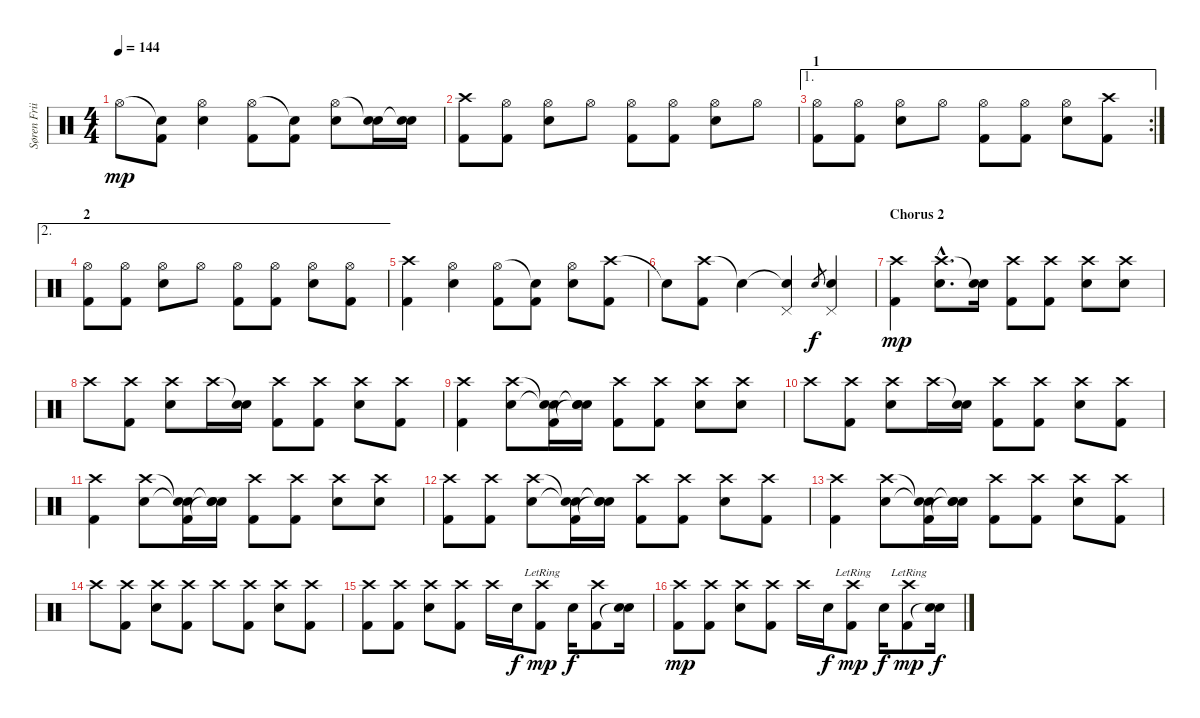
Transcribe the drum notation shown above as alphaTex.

\track ("Søren Friis" "Søren Frii") {instrument percussion}
\staff {score}
\articulation defaults
\ts (4 4)
\tempo 144
\clef neutral
\ks c "Hi-Hat (open)".8{dy mp}
("Snare (hit)"{t} "Kick (hit) 2").8 ("Hi-Hat (open)" "Snare (hit) 2").4 ("Hi-Hat (open)" "Kick (hit) 2").8 ("Snare (hit)"{t} "Kick (hit) 2").8 ("Hi-Hat (open)" "Snare (hit) 2").8 ("Snare (hit)"{t} "Snare (hit) 2").16 ("Snare (hit)"{t} "Snare (hit) 2").16 |
("Crash high (hit)" "Kick (hit) 2").8 ("Hi-Hat (open)" "Kick (hit) 2").8 ("Hi-Hat (open)" "Snare (hit) 2").8 "Hi-Hat (open)".8 ("Hi-Hat (open)" "Kick (hit) 2").8 ("Hi-Hat (open)" "Kick (hit) 2").8 ("Hi-Hat (open)" "Snare (hit) 2").8 "Hi-Hat (open)".8 |
\ae 1
\rc 2
\section ("" "1")
("Hi-Hat (open)" "Kick (hit) 2").8 ("Hi-Hat (open)" "Kick (hit) 2").8 ("Hi-Hat (open)" "Snare (hit) 2").8 "Hi-Hat (open)".8 ("Hi-Hat (open)" "Kick (hit) 2").8 ("Hi-Hat (open)" "Kick (hit) 2").8 ("Hi-Hat (open)" "Snare (hit) 2").8 ("Crash high (hit)" "Kick (hit) 2").8 |
\ae 2
\section ("" "2")
("Hi-Hat (open)" "Kick (hit) 2").8 ("Hi-Hat (open)" "Kick (hit) 2").8 ("Hi-Hat (open)" "Snare (hit) 2").8 "Hi-Hat (open)".8 ("Hi-Hat (open)" "Kick (hit) 2").8 ("Hi-Hat (open)" "Kick (hit) 2").8 ("Hi-Hat (open)" "Snare (hit) 2").8 ("Hi-Hat (open)" "Kick (hit) 2").8 |
("Crash high (hit)" "Kick (hit) 2").4 ("Hi-Hat (open)" "Snare (hit) 2").4 ("Hi-Hat (open)" "Kick (hit) 2").8 ("Snare (hit)"{t} "Kick (hit) 2").8 ("Hi-Hat (open)" "Snare (hit) 2").8 ("Crash high (hit)" "Kick (hit) 2").8 |
"Snare (hit)"{t}.8 ("Crash high (hit)" "Kick (hit) 2").8 "Snare (hit)"{t}.4 ("Snare (hit)"{t} "Pedal Hi-Hat (hit)").4 "Snare (hit) 2".8{gr dy f} ("Snare (hit) 2" "Pedal Hi-Hat (hit)").4 |
\section ("" "Chorus 2")
("Crash high (hit)" "Kick (hit) 2").4{dy mp} ("Crash high (hit)"{hac} "Snare (hit) 2"{hac}).8{d} ("Snare (hit)"{t} "Snare (hit) 2").16 ("Crash high (hit)" "Kick (hit) 2").8 ("Crash high (hit)" "Kick (hit) 2").8 ("Crash high (hit)" "Snare (hit) 2").8 ("Crash high (hit)" "Snare (hit) 2").8 |
"Crash high (hit)".8 ("Crash high (hit)" "Kick (hit) 2").8 ("Crash high (hit)" "Snare (hit) 2").8 "Crash high (hit)".16 ("Snare (hit)"{t} "Snare (hit) 2").16 ("Crash high (hit)" "Kick (hit) 2").8 ("Crash high (hit)" "Kick (hit) 2").8 ("Crash high (hit)" "Snare (hit) 2").8 ("Crash high (hit)" "Kick (hit) 2").8 |
("Crash high (hit)" "Kick (hit) 2").4 ("Crash high (hit)" "Snare (hit) 2").8 ("Snare (hit)"{t} "Snare (hit)"{t} "Kick (hit) 2").16 ("Snare (hit)"{t} "Snare (hit) 2" "Snare (hit)"{t}).16 ("Crash high (hit)" "Kick (hit) 2").8 ("Crash high (hit)" "Kick (hit) 2").8 ("Crash high (hit)" "Snare (hit) 2").8 ("Crash high (hit)" "Snare (hit) 2").8 |
"Crash high (hit)".8 ("Crash high (hit)" "Kick (hit) 2").8 ("Crash high (hit)" "Snare (hit) 2").8 "Crash high (hit)".16 ("Snare (hit)"{t} "Snare (hit) 2").16 ("Crash high (hit)" "Kick (hit) 2").8 ("Crash high (hit)" "Kick (hit) 2").8 ("Crash high (hit)" "Snare (hit) 2").8 ("Crash high (hit)" "Kick (hit) 2").8 |
("Crash high (hit)" "Kick (hit) 2").4 ("Crash high (hit)" "Snare (hit) 2").8 ("Snare (hit)"{t} "Snare (hit)"{t} "Kick (hit) 2").16 ("Snare (hit)"{t} "Snare (hit) 2" "Snare (hit)"{t}).16 ("Crash high (hit)" "Kick (hit) 2").8 ("Crash high (hit)" "Kick (hit) 2").8 ("Crash high (hit)" "Snare (hit) 2").8 ("Crash high (hit)" "Snare (hit) 2").8 |
("Crash high (hit)" "Kick (hit) 2").8 ("Crash high (hit)" "Kick (hit) 2").8 ("Crash high (hit)" "Snare (hit) 2").8 ("Snare (hit)"{t} "Snare (hit)"{t} "Kick (hit) 2").16 ("Snare (hit)"{t} "Snare (hit) 2" "Snare (hit)"{t}).16 ("Crash high (hit)" "Kick (hit) 2").8 ("Crash high (hit)" "Kick (hit) 2").8 ("Crash high (hit)" "Snare (hit) 2").8 ("Crash high (hit)" "Kick (hit) 2").8 |
("Crash high (hit)" "Kick (hit) 2").4 ("Crash high (hit)" "Snare (hit) 2").8 ("Snare (hit)"{t} "Snare (hit)"{t} "Kick (hit) 2").16 ("Snare (hit)"{t} "Snare (hit) 2" "Snare (hit)"{t}).16 ("Crash high (hit)" "Kick (hit) 2").8 ("Crash high (hit)" "Kick (hit) 2").8 ("Crash high (hit)" "Snare (hit) 2").8 ("Crash high (hit)" "Kick (hit) 2").8 |
"Crash high (hit)".8 ("Crash high (hit)" "Kick (hit) 2").8 ("Crash high (hit)" "Snare (hit) 2").8 ("Crash high (hit)" "Kick (hit) 2").8 "Crash high (hit)".8 ("Crash high (hit)" "Kick (hit) 2").8 ("Crash high (hit)" "Snare (hit) 2").8 ("Crash high (hit)" "Kick (hit) 2").8 |
("Crash high (hit)" "Kick (hit) 2").8 ("Crash high (hit)" "Kick (hit) 2").8 ("Crash high (hit)" "Snare (hit) 2").8 ("Crash high (hit)" "Kick (hit) 2").8 "Crash high (hit)".16 "Snare (hit) 2".16{dy f} ("Crash high (hit)"{lr} "Kick (hit) 2").8{dy mp} "Snare (hit) 2".16{dy f} ("Crash high (hit)" "Kick (hit) 2").8 ("Snare (hit) 2" "Snare (hit)"{t}).16 |
("Crash high (hit)" "Kick (hit) 2").8{dy mp} ("Crash high (hit)" "Kick (hit) 2").8 ("Crash high (hit)" "Snare (hit) 2").8 ("Crash high (hit)" "Kick (hit) 2").8 "Crash high (hit)".16 "Snare (hit) 2".16{dy f} ("Crash high (hit)"{lr} "Kick (hit) 2").8{dy mp} "Snare (hit) 2".16{dy f} ("Crash high (hit)"{lr} "Kick (hit) 2").8{dy mp} ("Snare (hit) 2" "Snare (hit)"{t}).16{dy f}
